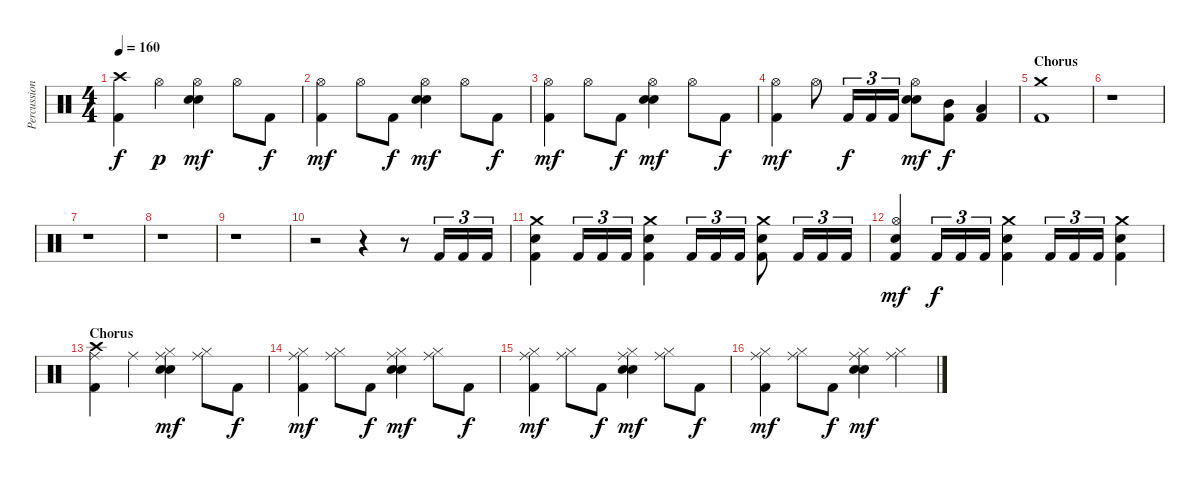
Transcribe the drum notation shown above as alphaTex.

\track ("Percussion" "Percussion") {instrument percussion}
\staff {score}
\articulation defaults
\ts (4 4)
\tempo 160
\clef neutral
\ks c
("Crash high (hit)" "Kick (hit) 2").4{dy f} "Hi-Hat (open)".4{dy p} ("Hi-Hat (open)" "Snare (hit) 2" "Electric Snare (hit)").4{dy mf} "Hi-Hat (open)".8 "Kick (hit) 2".8{dy f} |
("Hi-Hat (open)" "Kick (hit) 2").4{dy mf} "Hi-Hat (open)".8 "Kick (hit) 2".8{dy f} ("Hi-Hat (open)" "Snare (hit) 2" "Electric Snare (hit)").4{dy mf} "Hi-Hat (open)".8 "Kick (hit) 2".8{dy f} |
("Hi-Hat (open)" "Kick (hit) 2").4{dy mf} "Hi-Hat (open)".8 "Kick (hit) 2".8{dy f} ("Hi-Hat (open)" "Snare (hit) 2" "Electric Snare (hit)").4{dy mf} "Hi-Hat (open)".8 "Kick (hit) 2".8{dy f} |
("Hi-Hat (open)" "Kick (hit) 2").4{dy mf} "Hi-Hat (open)".8 "Kick (hit) 2".16{tu (3 2) dy f} "Kick (hit) 2".16{tu (3 2)} "Kick (hit) 2".16{tu (3 2)} ("Hi-Hat (open)" "Snare (hit) 2" "Electric Snare (hit)").8{dy mf} ("Mid Tom (hit)" "Kick (hit) 2").8{dy f} ("Low Tom (hit)" "Kick (hit) 2").4 |
\section ("" "Chorus")
("Crash medium (hit)" "Kick (hit) 2").1 |
r.1 |
r.1 |
r.1 |
r.1 |
r.2 r.4 r.8 "Kick (hit) 2".16{tu (3 2)} "Kick (hit) 2".16{tu (3 2)} "Kick (hit) 2".16{tu (3 2)} |
("Crash medium (hit)" "Electric Snare (hit)" "Kick (hit) 2").4 "Kick (hit) 2".16{tu (3 2)} "Kick (hit) 2".16{tu (3 2)} "Kick (hit) 2".16{tu (3 2)} ("Crash medium (hit)" "Electric Snare (hit)" "Kick (hit) 2").4 "Kick (hit) 2".16{tu (3 2)} "Kick (hit) 2".16{tu (3 2)} "Kick (hit) 2".16{tu (3 2)} ("Crash medium (hit)" "Electric Snare (hit)" "Kick (hit) 2").8 "Kick (hit) 2".16{tu (3 2)} "Kick (hit) 2".16{tu (3 2)} "Kick (hit) 2".16{tu (3 2)} |
("Hi-Hat (open)" "Electric Snare (hit)" "Kick (hit) 2").4{dy mf} "Kick (hit) 2".16{tu (3 2) dy f} "Kick (hit) 2".16{tu (3 2)} "Kick (hit) 2".16{tu (3 2)} ("Crash medium (hit)" "Electric Snare (hit)" "Kick (hit) 2").4 "Kick (hit) 2".16{tu (3 2)} "Kick (hit) 2".16{tu (3 2)} "Kick (hit) 2".16{tu (3 2)} ("Crash medium (hit)" "Electric Snare (hit)" "Kick (hit) 2").4 |
\section ("" "Chorus")
("Crash high (hit)" "Ride (middle)" "Kick (hit) 2").4 "Ride (middle)".4 ("Ride (middle)" "Hi-Hat (closed)" "Snare (hit) 2" "Electric Snare (hit)").4{dy mf} ("Ride (middle)" "Hi-Hat (closed)").8 "Kick (hit) 2".8{dy f} |
("Ride (middle)" "Hi-Hat (closed)" "Kick (hit) 2").4{dy mf} ("Ride (middle)" "Hi-Hat (closed)").8 "Kick (hit) 2".8{dy f} ("Ride (middle)" "Hi-Hat (closed)" "Snare (hit) 2" "Electric Snare (hit)").4{dy mf} ("Ride (middle)" "Hi-Hat (closed)").8 "Kick (hit) 2".8{dy f} |
("Ride (middle)" "Hi-Hat (closed)" "Kick (hit) 2").4{dy mf} ("Ride (middle)" "Hi-Hat (closed)").8 "Kick (hit) 2".8{dy f} ("Ride (middle)" "Hi-Hat (closed)" "Snare (hit) 2" "Electric Snare (hit)").4{dy mf} ("Ride (middle)" "Hi-Hat (closed)").8 "Kick (hit) 2".8{dy f} |
("Ride (middle)" "Hi-Hat (closed)" "Kick (hit) 2").4{dy mf} ("Ride (middle)" "Hi-Hat (closed)").8 "Kick (hit) 2".8{dy f} ("Ride (middle)" "Hi-Hat (closed)" "Snare (hit) 2" "Electric Snare (hit)").4{dy mf} ("Ride (middle)" "Hi-Hat (closed)").4
